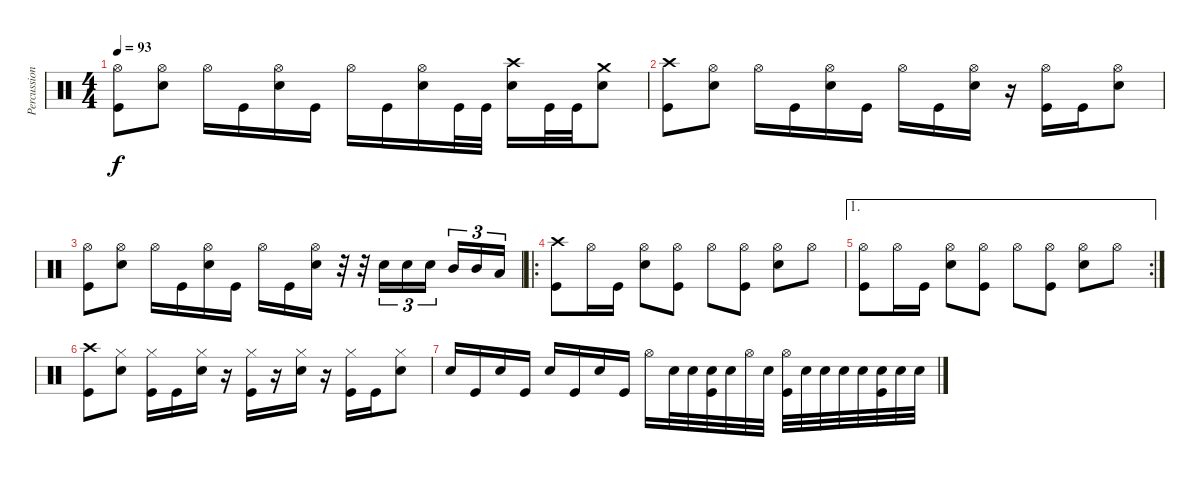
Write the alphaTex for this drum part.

\track ("Percussion" "Percussion") {instrument percussion}
\staff {score}
\articulation defaults
\ts (4 4)
\tempo 93
\clef neutral
\ks c
("Hi-Hat (open)" "Kick (hit)").8{dy f} ("Hi-Hat (open)" "Electric Snare (hit)").8 "Hi-Hat (open)".16 "Kick (hit)".16 ("Hi-Hat (open)" "Electric Snare (hit)").16 "Kick (hit)".16 "Hi-Hat (open)".16 "Kick (hit)".16 ("Hi-Hat (open)" "Electric Snare (hit)").16 "Kick (hit)".32 "Kick (hit)".32 ("Crash high (hit)" "Electric Snare (hit)").16 "Kick (hit)".32 "Kick (hit)".32 ("Crash medium (hit)" "Electric Snare (hit)").8 |
("Crash high (hit)" "Kick (hit)").8 ("Hi-Hat (open)" "Electric Snare (hit)").8 "Hi-Hat (open)".16 "Kick (hit)".16 ("Hi-Hat (open)" "Electric Snare (hit)").16 "Kick (hit)".16 "Hi-Hat (open)".16 "Kick (hit)".16 ("Hi-Hat (open)" "Electric Snare (hit)").16 r.16 ("Hi-Hat (open)" "Kick (hit)").16 "Kick (hit)".16 ("Hi-Hat (open)" "Electric Snare (hit)").8 |
("Hi-Hat (open)" "Kick (hit)").8 ("Hi-Hat (open)" "Electric Snare (hit)").8 "Hi-Hat (open)".16 "Kick (hit)".16 ("Hi-Hat (open)" "Electric Snare (hit)").16 "Kick (hit)".16 "Hi-Hat (open)".16 "Kick (hit)".16 ("Hi-Hat (open)" "Electric Snare (hit)").16 r.32 r.32 "Electric Snare (hit)".16{tu (3 2)} "Electric Snare (hit)".16{tu (3 2)} "Electric Snare (hit)".16{tu (3 2)} "Mid Tom (hit)".16{tu (3 2)} "Mid Tom (hit)".16{tu (3 2)} "Low Tom (hit)".16{tu (3 2)} |
\ro
("Crash high (hit)" "Kick (hit)").8 "Hi-Hat (open)".16 "Kick (hit)".16 ("Hi-Hat (open)" "Electric Snare (hit)").8 ("Hi-Hat (open)" "Kick (hit)").8 "Hi-Hat (open)".8 ("Hi-Hat (open)" "Kick (hit)").8 ("Hi-Hat (open)" "Electric Snare (hit)").8 "Hi-Hat (open)".8 |
\ae 1
\rc 2
("Hi-Hat (open)" "Kick (hit)").8 "Hi-Hat (open)".16 "Kick (hit)".16 ("Hi-Hat (open)" "Electric Snare (hit)").8 ("Hi-Hat (open)" "Kick (hit)").8 "Hi-Hat (open)".8 ("Hi-Hat (open)" "Kick (hit)").8 ("Hi-Hat (open)" "Electric Snare (hit)").8 "Hi-Hat (open)".8 |
("Crash high (hit)" "Kick (hit)").8 ("Hi-Hat (closed)" "Electric Snare (hit)").8 ("Hi-Hat (closed)" "Kick (hit)").16 "Kick (hit)".16 ("Hi-Hat (closed)" "Electric Snare (hit)").16 r.16 ("Hi-Hat (closed)" "Kick (hit)").16 r.16 ("Hi-Hat (closed)" "Electric Snare (hit)").16 r.16 ("Hi-Hat (closed)" "Kick (hit)").16 "Kick (hit)".16 ("Hi-Hat (closed)" "Electric Snare (hit)").8 |
"Electric Snare (hit)".16 "Kick (hit)".16 "Electric Snare (hit)".16 "Kick (hit)".16 "Electric Snare (hit)".16 "Kick (hit)".16 "Electric Snare (hit)".16 "Kick (hit)".16 "Hi-Hat (open)".16 "Electric Snare (hit)".32 "Electric Snare (hit)".32 ("Electric Snare (hit)" "Kick (hit)").32 "Electric Snare (hit)".32 "Hi-Hat (open)".32 "Electric Snare (hit)".32 ("Hi-Hat (open)" "Kick (hit)").32 "Electric Snare (hit)".32 "Electric Snare (hit)".32 "Electric Snare (hit)".32 "Electric Snare (hit)".32 ("Electric Snare (hit)" "Kick (hit)").32 "Electric Snare (hit)".32 "Electric Snare (hit)".32
